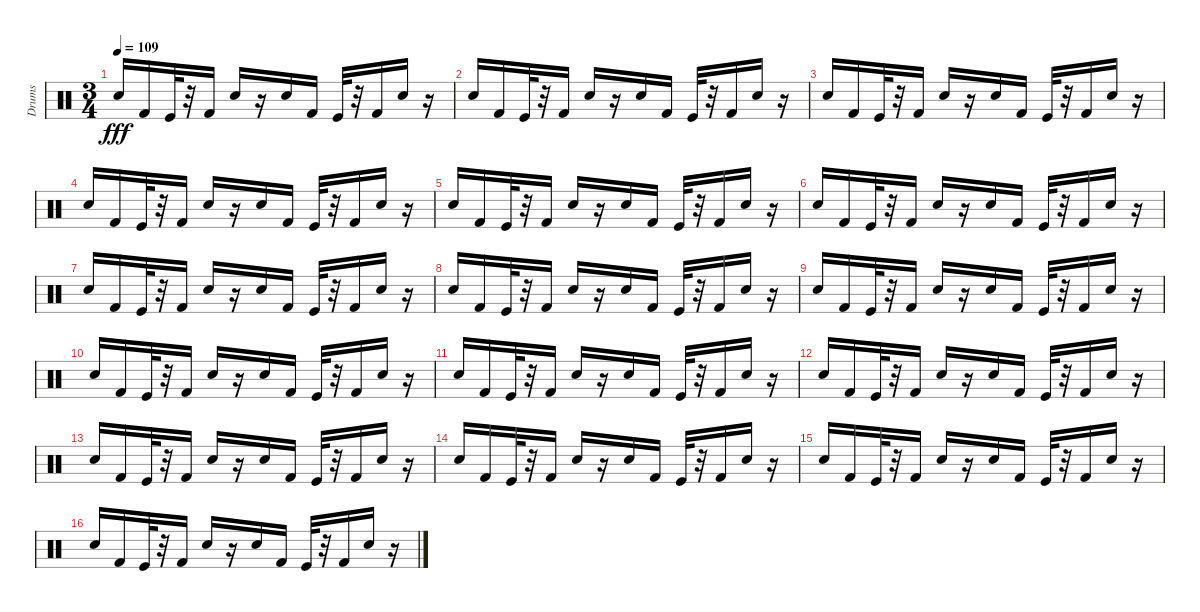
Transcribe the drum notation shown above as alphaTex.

\track ("Drums" "Drums") {instrument percussion}
\staff {score}
\articulation defaults
\ts (3 4)
\tempo 109
\clef neutral
\ks c "Electric Snare (hit)".16{dy fff} "Kick (hit) 2".16 "Kick (hit)".32
r.32 "Kick (hit) 2".16 "Electric Snare (hit)".16 r.16 "Electric Snare (hit)".16 "Kick (hit) 2".16 "Kick (hit)".32 r.32 "Kick (hit) 2".16 "Electric Snare (hit)".16 r.16 |
"Electric Snare (hit)".16 "Kick (hit) 2".16 "Kick (hit)".32 r.32 "Kick (hit) 2".16 "Electric Snare (hit)".16 r.16 "Electric Snare (hit)".16 "Kick (hit) 2".16 "Kick (hit)".32 r.32 "Kick (hit) 2".16 "Electric Snare (hit)".16 r.16 |
"Electric Snare (hit)".16 "Kick (hit) 2".16 "Kick (hit)".32 r.32 "Kick (hit) 2".16 "Electric Snare (hit)".16 r.16 "Electric Snare (hit)".16 "Kick (hit) 2".16 "Kick (hit)".32 r.32 "Kick (hit) 2".16 "Electric Snare (hit)".16 r.16 |
"Electric Snare (hit)".16 "Kick (hit) 2".16 "Kick (hit)".32 r.32 "Kick (hit) 2".16 "Electric Snare (hit)".16 r.16 "Electric Snare (hit)".16 "Kick (hit) 2".16 "Kick (hit)".32 r.32 "Kick (hit) 2".16 "Electric Snare (hit)".16 r.16 |
"Electric Snare (hit)".16 "Kick (hit) 2".16 "Kick (hit)".32 r.32 "Kick (hit) 2".16 "Electric Snare (hit)".16 r.16 "Electric Snare (hit)".16 "Kick (hit) 2".16 "Kick (hit)".32 r.32 "Kick (hit) 2".16 "Electric Snare (hit)".16 r.16 |
"Electric Snare (hit)".16 "Kick (hit) 2".16 "Kick (hit)".32 r.32 "Kick (hit) 2".16 "Electric Snare (hit)".16 r.16 "Electric Snare (hit)".16 "Kick (hit) 2".16 "Kick (hit)".32 r.32 "Kick (hit) 2".16 "Electric Snare (hit)".16 r.16 |
"Electric Snare (hit)".16 "Kick (hit) 2".16 "Kick (hit)".32 r.32 "Kick (hit) 2".16 "Electric Snare (hit)".16 r.16 "Electric Snare (hit)".16 "Kick (hit) 2".16 "Kick (hit)".32 r.32 "Kick (hit) 2".16 "Electric Snare (hit)".16 r.16 |
"Electric Snare (hit)".16 "Kick (hit) 2".16 "Kick (hit)".32 r.32 "Kick (hit) 2".16 "Electric Snare (hit)".16 r.16 "Electric Snare (hit)".16 "Kick (hit) 2".16 "Kick (hit)".32 r.32 "Kick (hit) 2".16 "Electric Snare (hit)".16 r.16 |
"Electric Snare (hit)".16 "Kick (hit) 2".16 "Kick (hit)".32 r.32 "Kick (hit) 2".16 "Electric Snare (hit)".16 r.16 "Electric Snare (hit)".16 "Kick (hit) 2".16 "Kick (hit)".32 r.32 "Kick (hit) 2".16 "Electric Snare (hit)".16 r.16 |
"Electric Snare (hit)".16 "Kick (hit) 2".16 "Kick (hit)".32 r.32 "Kick (hit) 2".16 "Electric Snare (hit)".16 r.16 "Electric Snare (hit)".16 "Kick (hit) 2".16 "Kick (hit)".32 r.32 "Kick (hit) 2".16 "Electric Snare (hit)".16 r.16 |
"Electric Snare (hit)".16 "Kick (hit) 2".16 "Kick (hit)".32 r.32 "Kick (hit) 2".16 "Electric Snare (hit)".16 r.16 "Electric Snare (hit)".16 "Kick (hit) 2".16 "Kick (hit)".32 r.32 "Kick (hit) 2".16 "Electric Snare (hit)".16 r.16 |
"Electric Snare (hit)".16 "Kick (hit) 2".16 "Kick (hit)".32 r.32 "Kick (hit) 2".16 "Electric Snare (hit)".16 r.16 "Electric Snare (hit)".16 "Kick (hit) 2".16 "Kick (hit)".32 r.32 "Kick (hit) 2".16 "Electric Snare (hit)".16 r.16 |
"Electric Snare (hit)".16 "Kick (hit) 2".16 "Kick (hit)".32 r.32 "Kick (hit) 2".16 "Electric Snare (hit)".16 r.16 "Electric Snare (hit)".16 "Kick (hit) 2".16 "Kick (hit)".32 r.32 "Kick (hit) 2".16 "Electric Snare (hit)".16 r.16 |
"Electric Snare (hit)".16 "Kick (hit) 2".16 "Kick (hit)".32 r.32 "Kick (hit) 2".16 "Electric Snare (hit)".16 r.16 "Electric Snare (hit)".16 "Kick (hit) 2".16 "Kick (hit)".32 r.32 "Kick (hit) 2".16 "Electric Snare (hit)".16 r.16 |
"Electric Snare (hit)".16 "Kick (hit) 2".16 "Kick (hit)".32 r.32 "Kick (hit) 2".16 "Electric Snare (hit)".16 r.16 "Electric Snare (hit)".16 "Kick (hit) 2".16 "Kick (hit)".32 r.32 "Kick (hit) 2".16 "Electric Snare (hit)".16 r.16 |
"Electric Snare (hit)".16 "Kick (hit) 2".16 "Kick (hit)".32 r.32 "Kick (hit) 2".16 "Electric Snare (hit)".16 r.16 "Electric Snare (hit)".16 "Kick (hit) 2".16 "Kick (hit)".32 r.32 "Kick (hit) 2".16 "Electric Snare (hit)".16 r.16
